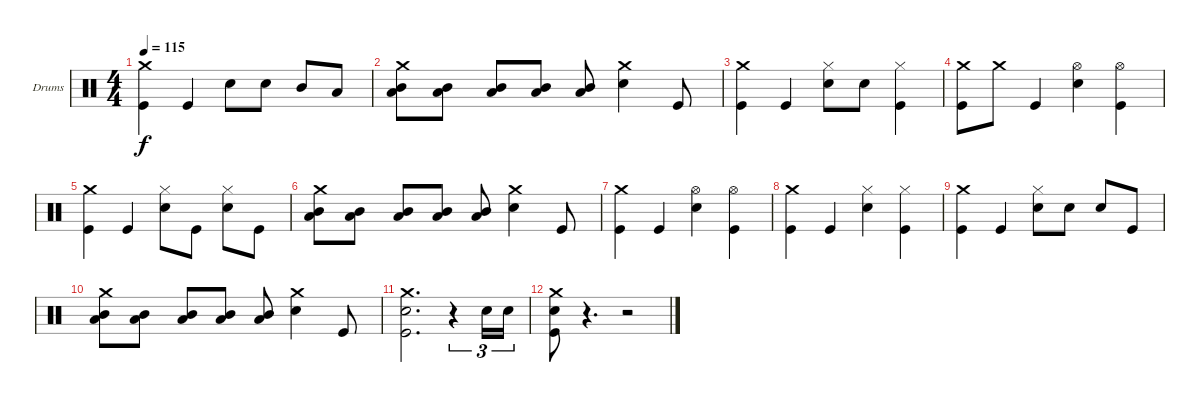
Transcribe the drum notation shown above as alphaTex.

\bracketExtendMode groupsimilarinstruments
\firstSystemTrackNameOrientation horizontal
\otherSystemsTrackNameOrientation horizontal
\track ("Drumkit" "Drums") {instrument percussion}
\staff {score}
\articulation defaults
\ts (4 4)
\tempo 115
\clef neutral
\ks aminor
("Crash medium (hit)" "Kick (hit)").4{dy f} "Kick (hit)".4 "Snare (hit) 2".8 "Snare (hit) 2".8 "Mid Tom (hit)".8 "Low Tom (hit)".8 |
("Crash medium (hit)" "Low Tom (hit)" "Mid Tom (hit)").8 ("Low Tom (hit)" "Mid Tom (hit)").8 ("Low Tom (hit)" "Mid Tom (hit)").8 ("Low Tom (hit)" "Mid Tom (hit)").8 ("Low Tom (hit)" "Mid Tom (hit)").8 ("Crash medium (hit)" "Snare (hit) 2").4 "Kick (hit)".8 |
("Crash medium (hit)" "Kick (hit)").4 "Kick (hit)".4 ("Hi-Hat (closed)" "Snare (hit) 2").8 "Snare (hit) 2".8 ("Hi-Hat (closed)" "Kick (hit)").4 |
("Crash medium (hit)" "Kick (hit)").8 "Crash medium (hit)".8 "Kick (hit)".4 ("Hi-Hat (open)" "Snare (hit) 2").4 ("Hi-Hat (open)" "Kick (hit)").4 |
("Crash medium (hit)" "Kick (hit)").4 "Kick (hit)".4 ("Hi-Hat (closed)" "Snare (hit) 2").8 "Kick (hit)".8 ("Hi-Hat (closed)" "Snare (hit) 2").8 "Kick (hit)".8 |
("Crash medium (hit)" "Low Tom (hit)" "Mid Tom (hit)").8 ("Low Tom (hit)" "Mid Tom (hit)").8 ("Low Tom (hit)" "Mid Tom (hit)").8 ("Low Tom (hit)" "Mid Tom (hit)").8 ("Low Tom (hit)" "Mid Tom (hit)").8 ("Crash medium (hit)" "Snare (hit) 2").4 "Kick (hit)".8 |
("Crash medium (hit)" "Kick (hit)").4 "Kick (hit)".4 ("Hi-Hat (open)" "Snare (hit) 2").4 ("Hi-Hat (open)" "Kick (hit)").4 |
("Crash medium (hit)" "Kick (hit)").4 "Kick (hit)".4 ("Hi-Hat (closed)" "Snare (hit) 2").4 ("Hi-Hat (closed)" "Kick (hit)").4 |
("Crash medium (hit)" "Kick (hit)").4 "Kick (hit)".4 ("Hi-Hat (closed)" "Snare (hit) 2").8 "Snare (hit) 2".8 "Snare (hit) 2".8 "Kick (hit)".8 |
("Crash medium (hit)" "Low Tom (hit)" "Mid Tom (hit)").8 ("Low Tom (hit)" "Mid Tom (hit)").8 ("Low Tom (hit)" "Mid Tom (hit)").8 ("Low Tom (hit)" "Mid Tom (hit)").8 ("Low Tom (hit)" "Mid Tom (hit)").8 ("Crash medium (hit)" "Snare (hit) 2").4 "Kick (hit)".8 |
("Crash medium (hit)" "Snare (hit) 2" "Kick (hit)").2{d} r.4{tu (3 2)} "Snare (hit) 2".16{tu (3 2)} "Snare (hit) 2".16{tu (3 2)} |
("Crash medium (hit)" "Snare (hit) 2" "Kick (hit)").8 r.4{d} r.2
